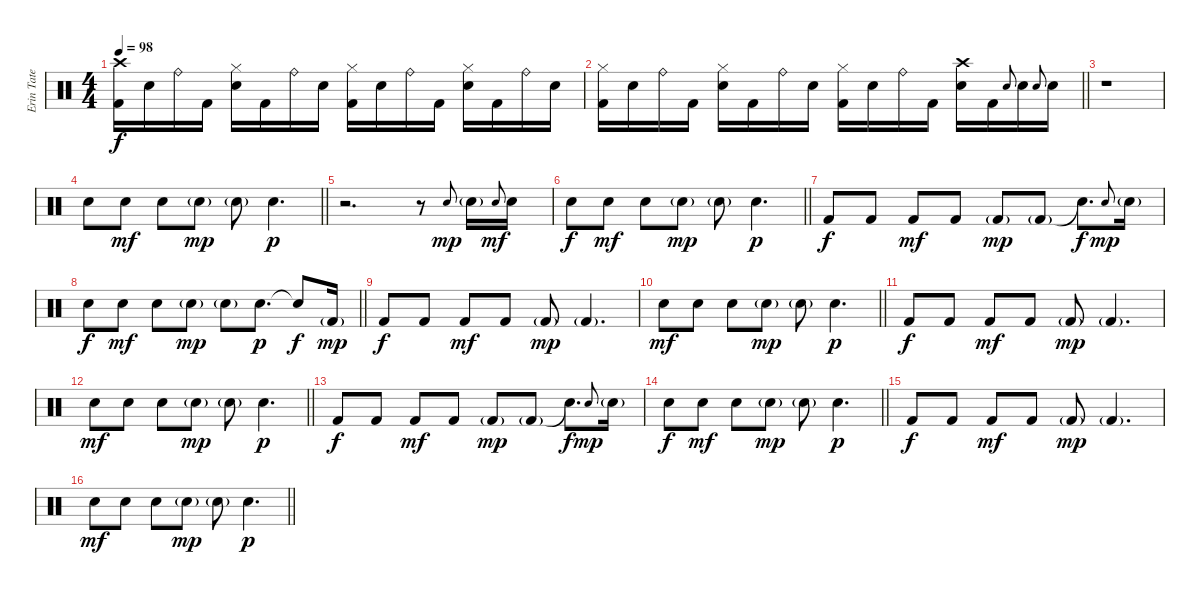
\track ("Erin Tate" "Erin Tate") {instrument percussion}
\staff {score}
\articulation defaults
\ts (4 4)
\tempo 98
\clef neutral
\ks c
("Crash high (hit)" "Kick (hit) 2").16{dy f} "Electric Snare (hit)".16 "Ride (bell)".16 "Kick (hit) 2".16 ("Hi-Hat (closed)" "Electric Snare (hit)").16 "Kick (hit) 2".16 "Ride (bell)".16 "Electric Snare (hit)".16 ("Hi-Hat (closed)" "Kick (hit) 2").16 "Electric Snare (hit)".16 "Ride (bell)".16 "Kick (hit) 2".16 ("Hi-Hat (closed)" "Electric Snare (hit)").16 "Kick (hit) 2".16 "Ride (bell)".16 "Electric Snare (hit)".16 |
\barLineRight lightlight
("Hi-Hat (closed)" "Kick (hit) 2").16 "Electric Snare (hit)".16 "Ride (bell)".16 "Kick (hit) 2".16 ("Hi-Hat (closed)" "Electric Snare (hit)").16 "Kick (hit) 2".16 "Ride (bell)".16 "Electric Snare (hit)".16 ("Hi-Hat (closed)" "Kick (hit) 2").16 "Electric Snare (hit)".16 "Ride (bell)".16 "Kick (hit) 2".16 ("Crash high (hit)" "Electric Snare (hit)").16 "Kick (hit) 2".16 "Electric Snare (hit)".8{gr onbeat} "Electric Snare (hit)".16 "Electric Snare (hit)".8{gr onbeat} "Electric Snare (hit)".16 |
r.1 |
\barLineRight lightlight "Electric Snare (hit)".8 "Electric Snare (hit)".8{dy mf} "Electric Snare (hit)".8 "Electric Snare (hit)"{g}.8{dy mp} "Electric Snare (hit)"{g}.8 "Electric Snare (hit)".4{d dy p}
|
r.2{d} r.8 "Electric Snare (hit)".8{gr onbeat dy mp} "Electric Snare (hit)"{g}.16 "Electric Snare (hit)".8{gr onbeat dy mf} "Electric Snare (hit)".16 |
\barLineRight lightlight "Electric Snare (hit)".8{dy f} "Electric Snare (hit)".8{dy mf} "Electric Snare (hit)".8 "Electric Snare (hit)"{g}.8{dy mp} "Electric Snare (hit)"{g}.8 "Electric Snare (hit)".4{d dy p}
|
"Kick (hit) 2".8{dy f} "Kick (hit) 2".8 "Kick (hit) 2".8{dy mf} "Kick (hit) 2".8 "Kick (hit) 2"{g}.8{dy mp} "Kick (hit) 2"{g}.8 "Snare (hit)"{t}.8{d dy f} "Electric Snare (hit)".8{gr onbeat dy mp} "Electric Snare (hit)"{g}.16 |
\barLineRight lightlight "Electric Snare (hit)".8{dy f} "Electric Snare (hit)".8{dy mf} "Electric Snare (hit)".8 "Electric Snare (hit)"{g}.8{dy mp} "Electric Snare (hit)"{g}.8 "Electric Snare (hit)".8{d dy p} "Snare (hit)"{t}.8{dy f} "Kick (hit) 2"{g}.16{dy mp}
|
"Kick (hit) 2".8{dy f} "Kick (hit) 2".8 "Kick (hit) 2".8{dy mf} "Kick (hit) 2".8 "Kick (hit) 2"{g}.8{dy mp} "Kick (hit) 2"{g}.4{d} |
\barLineRight lightlight "Electric Snare (hit)".8{dy mf} "Electric Snare (hit)".8 "Electric Snare (hit)".8 "Electric Snare (hit)"{g}.8{dy mp} "Electric Snare (hit)"{g}.8 "Electric Snare (hit)".4{d dy p}
|
"Kick (hit) 2".8{dy f volume 6} "Kick (hit) 2".8 "Kick (hit) 2".8{dy mf} "Kick (hit) 2".8 "Kick (hit) 2"{g}.8{dy mp} "Kick (hit) 2"{g}.4{d} |
\barLineRight lightlight "Electric Snare (hit)".8{dy mf} "Electric Snare (hit)".8 "Electric Snare (hit)".8 "Electric Snare (hit)"{g}.8{dy mp} "Electric Snare (hit)"{g}.8 "Electric Snare (hit)".4{d dy p}
|
"Kick (hit) 2".8{dy f} "Kick (hit) 2".8 "Kick (hit) 2".8{dy mf} "Kick (hit) 2".8 "Kick (hit) 2"{g}.8{dy mp} "Kick (hit) 2"{g}.8 "Snare (hit)"{t}.8{d dy f} "Electric Snare (hit)".8{gr onbeat dy mp} "Electric Snare (hit)"{g}.16 |
\barLineRight lightlight "Electric Snare (hit)".8{dy f} "Electric Snare (hit)".8{dy mf} "Electric Snare (hit)".8 "Electric Snare (hit)"{g}.8{dy mp} "Electric Snare (hit)"{g}.8 "Electric Snare (hit)".4{d dy p}
|
"Kick (hit) 2".8{dy f volume 0} "Kick (hit) 2".8 "Kick (hit) 2".8{dy mf} "Kick (hit) 2".8 "Kick (hit) 2"{g}.8{dy mp} "Kick (hit) 2"{g}.4{d} |
\barLineRight lightlight "Electric Snare (hit)".8{dy mf} "Electric Snare (hit)".8 "Electric Snare (hit)".8 "Electric Snare (hit)"{g}.8{dy mp} "Electric Snare (hit)"{g}.8 "Electric Snare (hit)".4{d dy p}
